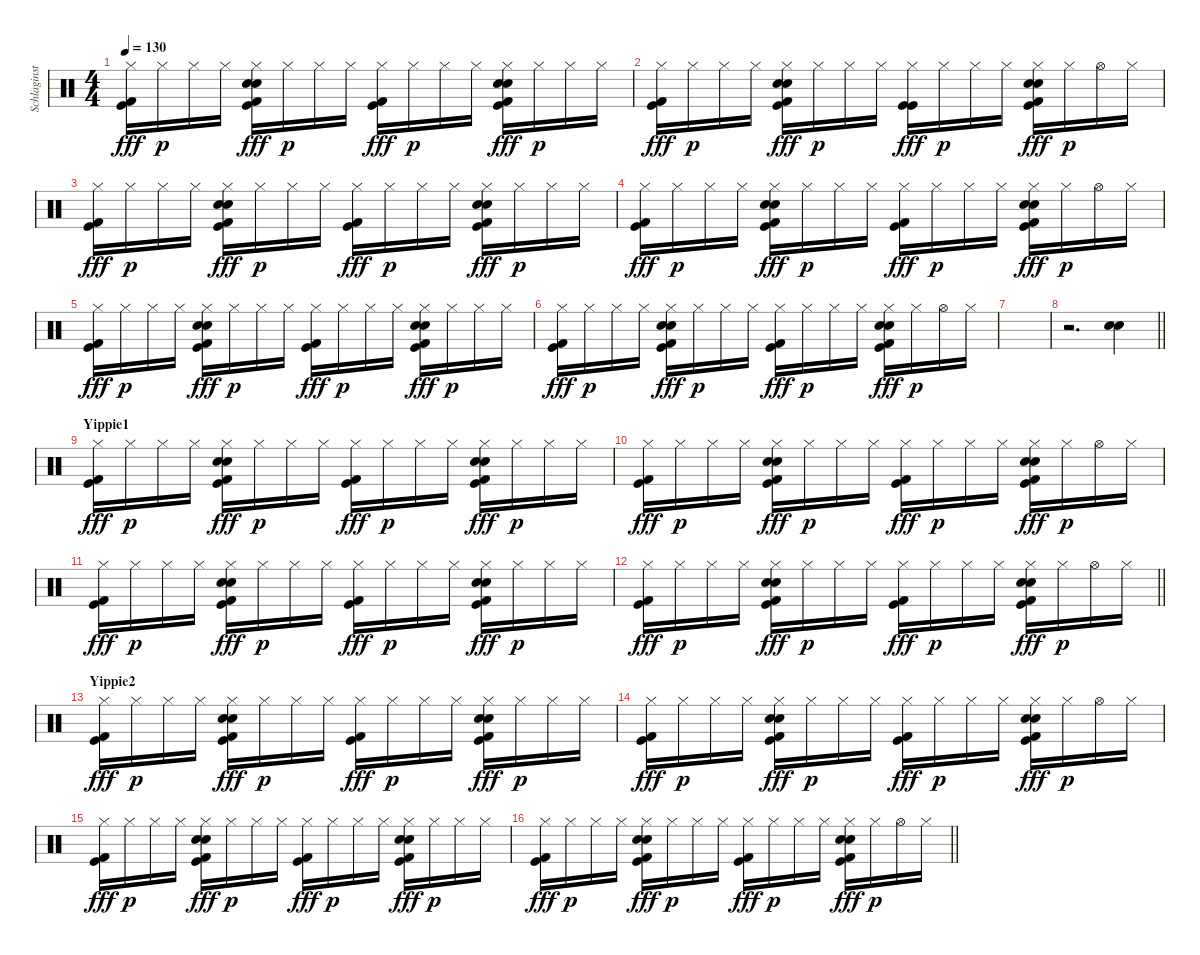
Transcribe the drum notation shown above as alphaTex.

\track ("Schlaginstrumente - Auswahl" "Schlaginst") {instrument percussion}
\staff {score}
\articulation defaults
\ts (4 4)
\tempo 130
\clef neutral
\ks c
("Hi-Hat (closed)" "Kick (hit) 2" "Kick (hit)").16{dy fff} "Hi-Hat (closed)".16{dy p} "Hi-Hat (closed)".16 "Hi-Hat (closed)".16 ("Electric Snare (hit)" "Hi-Hat (closed)" "Snare (hit) 2" "Kick (hit) 2" "Kick (hit)").16{dy fff} "Hi-Hat (closed)".16{dy p} "Hi-Hat (closed)".16 "Hi-Hat (closed)".16 ("Hi-Hat (closed)" "Kick (hit) 2" "Kick (hit)").16{dy fff} "Hi-Hat (closed)".16{dy p} "Hi-Hat (closed)".16 "Hi-Hat (closed)".16 ("Electric Snare (hit)" "Hi-Hat (closed)" "Snare (hit) 2" "Kick (hit) 2" "Kick (hit)").16{dy fff} "Hi-Hat (closed)".16{dy p} "Hi-Hat (closed)".16 "Hi-Hat (closed)".16 |
("Hi-Hat (closed)" "Kick (hit) 2" "Kick (hit)").16{dy fff} "Hi-Hat (closed)".16{dy p} "Hi-Hat (closed)".16 "Hi-Hat (closed)".16 ("Electric Snare (hit)" "Hi-Hat (closed)" "Snare (hit) 2" "Kick (hit) 2" "Kick (hit)").16{dy fff} "Hi-Hat (closed)".16{dy p} "Hi-Hat (closed)".16 "Hi-Hat (closed)".16 ("Hi-Hat (closed)" "Kick (hit)" "Kick (hit)").16{dy fff} "Hi-Hat (closed)".16{dy p} "Hi-Hat (closed)".16 "Hi-Hat (closed)".16 ("Electric Snare (hit)" "Hi-Hat (closed)" "Snare (hit) 2" "Kick (hit) 2" "Kick (hit)").16{dy fff} "Hi-Hat (closed)".16{dy p} "Hi-Hat (open)".16 "Hi-Hat (closed)".16 |
("Hi-Hat (closed)" "Kick (hit) 2" "Kick (hit)").16{dy fff} "Hi-Hat (closed)".16{dy p} "Hi-Hat (closed)".16 "Hi-Hat (closed)".16 ("Electric Snare (hit)" "Hi-Hat (closed)" "Snare (hit) 2" "Kick (hit) 2" "Kick (hit)").16{dy fff} "Hi-Hat (closed)".16{dy p} "Hi-Hat (closed)".16 "Hi-Hat (closed)".16 ("Hi-Hat (closed)" "Kick (hit) 2" "Kick (hit)").16{dy fff} "Hi-Hat (closed)".16{dy p} "Hi-Hat (closed)".16 "Hi-Hat (closed)".16 ("Electric Snare (hit)" "Hi-Hat (closed)" "Snare (hit) 2" "Kick (hit) 2" "Kick (hit)").16{dy fff} "Hi-Hat (closed)".16{dy p} "Hi-Hat (closed)".16 "Hi-Hat (closed)".16 |
("Hi-Hat (closed)" "Kick (hit) 2" "Kick (hit)").16{dy fff} "Hi-Hat (closed)".16{dy p} "Hi-Hat (closed)".16 "Hi-Hat (closed)".16 ("Electric Snare (hit)" "Hi-Hat (closed)" "Snare (hit) 2" "Kick (hit) 2" "Kick (hit)").16{dy fff} "Hi-Hat (closed)".16{dy p} "Hi-Hat (closed)".16 "Hi-Hat (closed)".16 ("Hi-Hat (closed)" "Kick (hit) 2" "Kick (hit)").16{dy fff} "Hi-Hat (closed)".16{dy p} "Hi-Hat (closed)".16 "Hi-Hat (closed)".16 ("Electric Snare (hit)" "Hi-Hat (closed)" "Snare (hit) 2" "Kick (hit) 2" "Kick (hit)").16{dy fff} "Hi-Hat (closed)".16{dy p} "Hi-Hat (open)".16 "Hi-Hat (closed)".16 |
("Hi-Hat (closed)" "Kick (hit) 2" "Kick (hit)").16{dy fff} "Hi-Hat (closed)".16{dy p} "Hi-Hat (closed)".16 "Hi-Hat (closed)".16 ("Electric Snare (hit)" "Hi-Hat (closed)" "Snare (hit) 2" "Kick (hit) 2" "Kick (hit)").16{dy fff} "Hi-Hat (closed)".16{dy p} "Hi-Hat (closed)".16 "Hi-Hat (closed)".16 ("Hi-Hat (closed)" "Kick (hit) 2" "Kick (hit)").16{dy fff} "Hi-Hat (closed)".16{dy p} "Hi-Hat (closed)".16 "Hi-Hat (closed)".16 ("Electric Snare (hit)" "Hi-Hat (closed)" "Snare (hit) 2" "Kick (hit) 2" "Kick (hit)").16{dy fff} "Hi-Hat (closed)".16{dy p} "Hi-Hat (closed)".16 "Hi-Hat (closed)".16 |
("Hi-Hat (closed)" "Kick (hit) 2" "Kick (hit)").16{dy fff} "Hi-Hat (closed)".16{dy p} "Hi-Hat (closed)".16 "Hi-Hat (closed)".16 ("Electric Snare (hit)" "Hi-Hat (closed)" "Snare (hit) 2" "Kick (hit) 2" "Kick (hit)").16{dy fff} "Hi-Hat (closed)".16{dy p} "Hi-Hat (closed)".16 "Hi-Hat (closed)".16 ("Hi-Hat (closed)" "Kick (hit) 2" "Kick (hit)").16{dy fff} "Hi-Hat (closed)".16{dy p} "Hi-Hat (closed)".16 "Hi-Hat (closed)".16 ("Electric Snare (hit)" "Hi-Hat (closed)" "Snare (hit) 2" "Kick (hit) 2" "Kick (hit)").16{dy fff} "Hi-Hat (closed)".16{dy p} "Hi-Hat (open)".16 "Hi-Hat (closed)".16 |
|
\barLineRight lightlight
r.2{d} ("Hand Clap (hit)" "Snare (hit) 2").4 |
\section ("" "Yippie1")
("Hi-Hat (closed)" "Kick (hit) 2" "Kick (hit)").16{dy fff} "Hi-Hat (closed)".16{dy p} "Hi-Hat (closed)".16 "Hi-Hat (closed)".16 ("Hand Clap (hit)" "Hi-Hat (closed)" "Snare (hit) 2" "Kick (hit) 2" "Kick (hit)").16{dy fff} "Hi-Hat (closed)".16{dy p} "Hi-Hat (closed)".16 "Hi-Hat (closed)".16 ("Hi-Hat (closed)" "Kick (hit) 2" "Kick (hit)").16{dy fff} "Hi-Hat (closed)".16{dy p} "Hi-Hat (closed)".16 "Hi-Hat (closed)".16 ("Hand Clap (hit)" "Hi-Hat (closed)" "Snare (hit) 2" "Kick (hit) 2" "Kick (hit)").16{dy fff} "Hi-Hat (closed)".16{dy p} "Hi-Hat (closed)".16 "Hi-Hat (closed)".16 |
("Hi-Hat (closed)" "Kick (hit) 2" "Kick (hit)").16{dy fff} "Hi-Hat (closed)".16{dy p} "Hi-Hat (closed)".16 "Hi-Hat (closed)".16 ("Hand Clap (hit)" "Hi-Hat (closed)" "Snare (hit) 2" "Kick (hit) 2" "Kick (hit)").16{dy fff} "Hi-Hat (closed)".16{dy p} "Hi-Hat (closed)".16 "Hi-Hat (closed)".16 ("Hi-Hat (closed)" "Kick (hit) 2" "Kick (hit)").16{dy fff} "Hi-Hat (closed)".16{dy p} "Hi-Hat (closed)".16 "Hi-Hat (closed)".16 ("Hand Clap (hit)" "Hi-Hat (closed)" "Snare (hit) 2" "Kick (hit) 2" "Kick (hit)").16{dy fff} "Hi-Hat (closed)".16{dy p} "Hi-Hat (open)".16 "Hi-Hat (closed)".16 |
("Hi-Hat (closed)" "Kick (hit) 2" "Kick (hit)").16{dy fff} "Hi-Hat (closed)".16{dy p} "Hi-Hat (closed)".16 "Hi-Hat (closed)".16 ("Hand Clap (hit)" "Hi-Hat (closed)" "Snare (hit) 2" "Kick (hit) 2" "Kick (hit)").16{dy fff} "Hi-Hat (closed)".16{dy p} "Hi-Hat (closed)".16 "Hi-Hat (closed)".16 ("Hi-Hat (closed)" "Kick (hit) 2" "Kick (hit)").16{dy fff} "Hi-Hat (closed)".16{dy p} "Hi-Hat (closed)".16 "Hi-Hat (closed)".16 ("Hand Clap (hit)" "Hi-Hat (closed)" "Snare (hit) 2" "Kick (hit) 2" "Kick (hit)").16{dy fff} "Hi-Hat (closed)".16{dy p} "Hi-Hat (closed)".16 "Hi-Hat (closed)".16 |
\barLineRight lightlight
("Hi-Hat (closed)" "Kick (hit) 2" "Kick (hit)").16{dy fff} "Hi-Hat (closed)".16{dy p} "Hi-Hat (closed)".16 "Hi-Hat (closed)".16 ("Hand Clap (hit)" "Hi-Hat (closed)" "Snare (hit) 2" "Kick (hit) 2" "Kick (hit)").16{dy fff} "Hi-Hat (closed)".16{dy p} "Hi-Hat (closed)".16 "Hi-Hat (closed)".16 ("Hi-Hat (closed)" "Kick (hit) 2" "Kick (hit)").16{dy fff} "Hi-Hat (closed)".16{dy p} "Hi-Hat (closed)".16 "Hi-Hat (closed)".16 ("Hand Clap (hit)" "Hi-Hat (closed)" "Snare (hit) 2" "Kick (hit) 2" "Kick (hit)").16{dy fff} "Hi-Hat (closed)".16{dy p} "Hi-Hat (open)".16 "Hi-Hat (closed)".16 |
\section ("" "Yippie2")
("Hi-Hat (closed)" "Kick (hit) 2" "Kick (hit)").16{dy fff} "Hi-Hat (closed)".16{dy p} "Hi-Hat (closed)".16 "Hi-Hat (closed)".16 ("Hand Clap (hit)" "Hi-Hat (closed)" "Snare (hit) 2" "Kick (hit) 2" "Kick (hit)").16{dy fff} "Hi-Hat (closed)".16{dy p} "Hi-Hat (closed)".16 "Hi-Hat (closed)".16 ("Hi-Hat (closed)" "Kick (hit) 2" "Kick (hit)").16{dy fff} "Hi-Hat (closed)".16{dy p} "Hi-Hat (closed)".16 "Hi-Hat (closed)".16 ("Hand Clap (hit)" "Hi-Hat (closed)" "Snare (hit) 2" "Kick (hit) 2" "Kick (hit)").16{dy fff} "Hi-Hat (closed)".16{dy p} "Hi-Hat (closed)".16 "Hi-Hat (closed)".16 |
("Hi-Hat (closed)" "Kick (hit) 2" "Kick (hit)").16{dy fff} "Hi-Hat (closed)".16{dy p} "Hi-Hat (closed)".16 "Hi-Hat (closed)".16 ("Hand Clap (hit)" "Hi-Hat (closed)" "Snare (hit) 2" "Kick (hit) 2" "Kick (hit)").16{dy fff} "Hi-Hat (closed)".16{dy p} "Hi-Hat (closed)".16 "Hi-Hat (closed)".16 ("Hi-Hat (closed)" "Kick (hit) 2" "Kick (hit)").16{dy fff} "Hi-Hat (closed)".16{dy p} "Hi-Hat (closed)".16 "Hi-Hat (closed)".16 ("Hand Clap (hit)" "Hi-Hat (closed)" "Snare (hit) 2" "Kick (hit) 2" "Kick (hit)").16{dy fff} "Hi-Hat (closed)".16{dy p} "Hi-Hat (open)".16 "Hi-Hat (closed)".16 |
("Hi-Hat (closed)" "Kick (hit) 2" "Kick (hit)").16{dy fff} "Hi-Hat (closed)".16{dy p} "Hi-Hat (closed)".16 "Hi-Hat (closed)".16 ("Hand Clap (hit)" "Hi-Hat (closed)" "Snare (hit) 2" "Kick (hit) 2" "Kick (hit)").16{dy fff} "Hi-Hat (closed)".16{dy p} "Hi-Hat (closed)".16 "Hi-Hat (closed)".16 ("Hi-Hat (closed)" "Kick (hit) 2" "Kick (hit)").16{dy fff} "Hi-Hat (closed)".16{dy p} "Hi-Hat (closed)".16 "Hi-Hat (closed)".16 ("Hand Clap (hit)" "Hi-Hat (closed)" "Snare (hit) 2" "Kick (hit) 2" "Kick (hit)").16{dy fff} "Hi-Hat (closed)".16{dy p} "Hi-Hat (closed)".16 "Hi-Hat (closed)".16 |
\barLineRight lightlight
("Hi-Hat (closed)" "Kick (hit) 2" "Kick (hit)").16{dy fff} "Hi-Hat (closed)".16{dy p} "Hi-Hat (closed)".16 "Hi-Hat (closed)".16 ("Hand Clap (hit)" "Hi-Hat (closed)" "Snare (hit) 2" "Kick (hit) 2" "Kick (hit)").16{dy fff} "Hi-Hat (closed)".16{dy p} "Hi-Hat (closed)".16 "Hi-Hat (closed)".16 ("Hi-Hat (closed)" "Kick (hit) 2" "Kick (hit)").16{dy fff} "Hi-Hat (closed)".16{dy p} "Hi-Hat (closed)".16 "Hi-Hat (closed)".16 ("Hand Clap (hit)" "Hi-Hat (closed)" "Snare (hit) 2" "Kick (hit) 2" "Kick (hit)").16{dy fff} "Hi-Hat (closed)".16{dy p} "Hi-Hat (open)".16 "Hi-Hat (closed)".16
